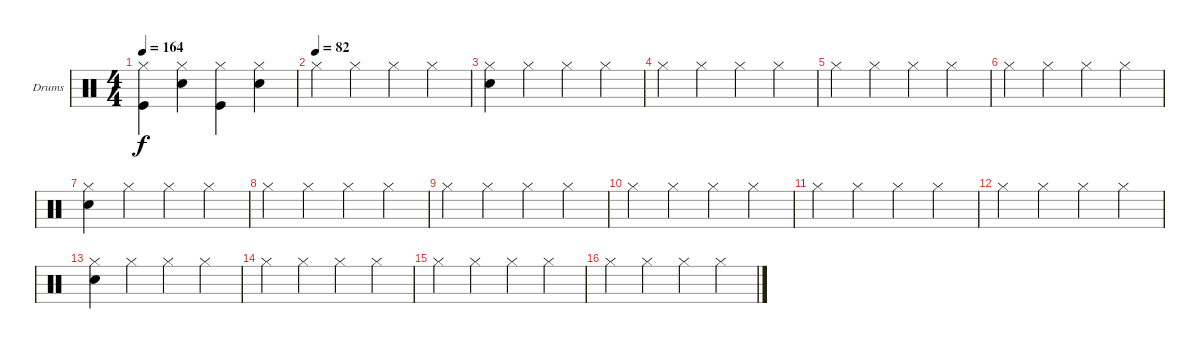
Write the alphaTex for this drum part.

\bracketExtendMode groupsimilarinstruments
\firstSystemTrackNameOrientation horizontal
\otherSystemsTrackNameOrientation horizontal
\track ("Drumkit" "Drums") {instrument percussion}
\staff {score}
\articulation defaults
\ts (4 4)
\tempo 164
\clef neutral
\ks c
("Hi-Hat (closed)" "Kick (hit)").4{dy f} ("Hi-Hat (closed)" "Snare (hit) 2").4 ("Hi-Hat (closed)" "Kick (hit)").4 ("Hi-Hat (closed)" "Snare (hit) 2").4 |
\tempo (82)
"Hi-Hat (closed)".4 "Hi-Hat (closed)".4 "Hi-Hat (closed)".4 "Hi-Hat (closed)".4 |
("Snare (hit) 2" "Hi-Hat (closed)").4 "Hi-Hat (closed)".4 "Hi-Hat (closed)".4 "Hi-Hat (closed)".4 |
"Hi-Hat (closed)".4 "Hi-Hat (closed)".4 "Hi-Hat (closed)".4 "Hi-Hat (closed)".4 |
"Hi-Hat (closed)".4 "Hi-Hat (closed)".4 "Hi-Hat (closed)".4 "Hi-Hat (closed)".4 |
"Hi-Hat (closed)".4 "Hi-Hat (closed)".4 "Hi-Hat (closed)".4 "Hi-Hat (closed)".4 |
("Snare (hit) 2" "Hi-Hat (closed)").4 "Hi-Hat (closed)".4 "Hi-Hat (closed)".4 "Hi-Hat (closed)".4 |
"Hi-Hat (closed)".4 "Hi-Hat (closed)".4 "Hi-Hat (closed)".4 "Hi-Hat (closed)".4 |
"Hi-Hat (closed)".4 "Hi-Hat (closed)".4 "Hi-Hat (closed)".4 "Hi-Hat (closed)".4 |
"Hi-Hat (closed)".4 "Hi-Hat (closed)".4 "Hi-Hat (closed)".4 "Hi-Hat (closed)".4 |
"Hi-Hat (closed)".4 "Hi-Hat (closed)".4 "Hi-Hat (closed)".4 "Hi-Hat (closed)".4 |
"Hi-Hat (closed)".4 "Hi-Hat (closed)".4 "Hi-Hat (closed)".4 "Hi-Hat (closed)".4 |
("Snare (hit) 2" "Hi-Hat (closed)").4 "Hi-Hat (closed)".4 "Hi-Hat (closed)".4 "Hi-Hat (closed)".4 |
"Hi-Hat (closed)".4 "Hi-Hat (closed)".4 "Hi-Hat (closed)".4 "Hi-Hat (closed)".4 |
"Hi-Hat (closed)".4 "Hi-Hat (closed)".4 "Hi-Hat (closed)".4 "Hi-Hat (closed)".4 |
"Hi-Hat (closed)".4 "Hi-Hat (closed)".4 "Hi-Hat (closed)".4 "Hi-Hat (closed)".4
